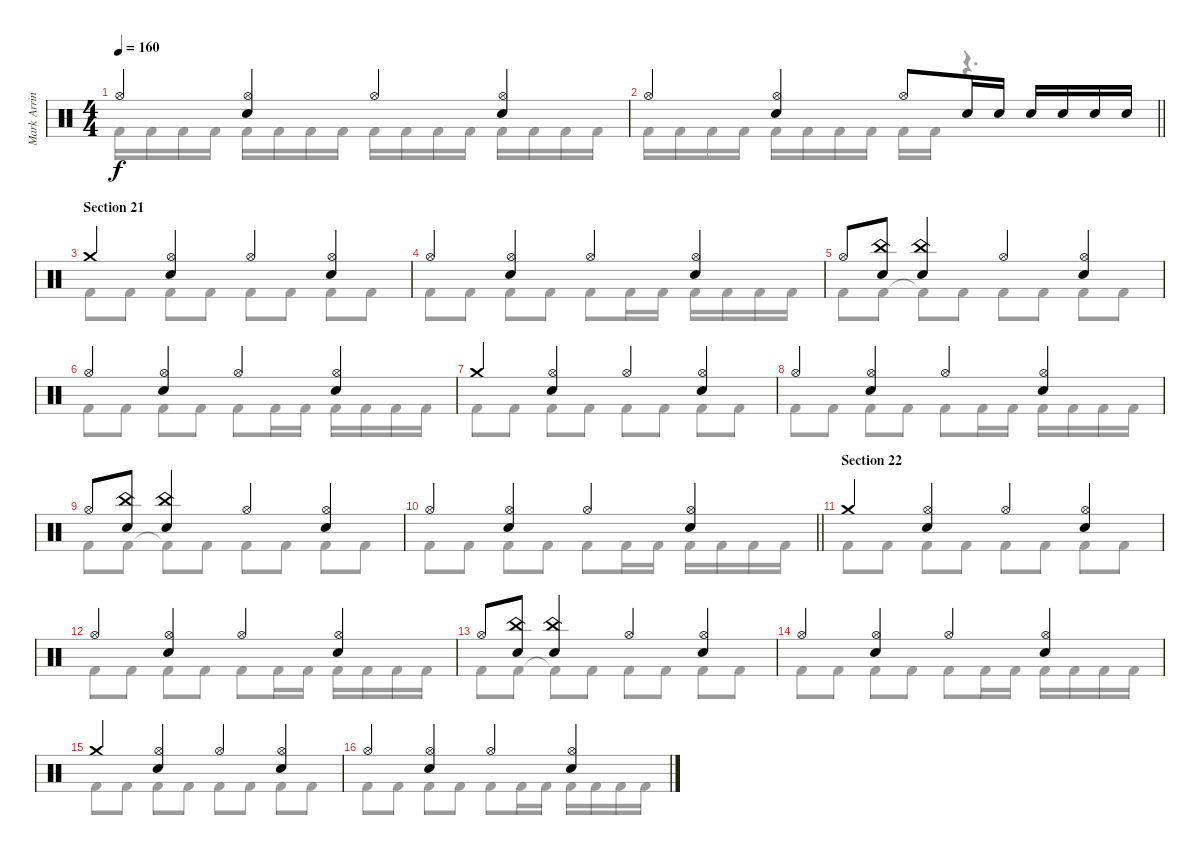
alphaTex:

\track ("Mark Arrington – drums" "Mark Arrin") {instrument percussion}
\staff {score}
\articulation defaults
\voice
\ts (4 4)
\tempo 160
\clef neutral
\ks c "Hi-Hat (open)".4{dy f}
("Hi-Hat (open)" "Electric Snare (hit)").4 "Hi-Hat (open)".4 ("Hi-Hat (open)" "Electric Snare (hit)").4 |
\barLineRight lightlight "Hi-Hat (open)".4
("Hi-Hat (open)" "Electric Snare (hit)").4 "Hi-Hat (open)".8 "Electric Snare (hit)".16 "Electric Snare (hit)".16 "Electric Snare (hit)".16 "Electric Snare (hit)".16 "Electric Snare (hit)".16 "Electric Snare (hit)".16 |
\section ("" "Section 21")
"Crash medium (hit)".4 ("Hi-Hat (open)" "Electric Snare (hit)").4 "Hi-Hat (open)".4 ("Hi-Hat (open)" "Electric Snare (hit)").4 |
"Hi-Hat (open)".4 ("Hi-Hat (open)" "Electric Snare (hit)").4 "Hi-Hat (open)".4 ("Hi-Hat (open)" "Electric Snare (hit)").4 |
"Hi-Hat (open)".8 ("China (hit)" "Electric Snare (hit)").8 ("China (hit)" "Electric Snare (hit)").4 "Hi-Hat (open)".4 ("Hi-Hat (open)" "Electric Snare (hit)").4 |
"Hi-Hat (open)".4 ("Hi-Hat (open)" "Electric Snare (hit)").4 "Hi-Hat (open)".4 ("Hi-Hat (open)" "Electric Snare (hit)").4 |
"Crash medium (hit)".4 ("Hi-Hat (open)" "Electric Snare (hit)").4 "Hi-Hat (open)".4 ("Hi-Hat (open)" "Electric Snare (hit)").4 |
"Hi-Hat (open)".4 ("Hi-Hat (open)" "Electric Snare (hit)").4 "Hi-Hat (open)".4 ("Hi-Hat (open)" "Electric Snare (hit)").4 |
"Hi-Hat (open)".8 ("China (hit)" "Electric Snare (hit)").8 ("China (hit)" "Electric Snare (hit)").4 "Hi-Hat (open)".4 ("Hi-Hat (open)" "Electric Snare (hit)").4 |
\barLineRight lightlight "Hi-Hat (open)".4
("Hi-Hat (open)" "Electric Snare (hit)").4 "Hi-Hat (open)".4 ("Hi-Hat (open)" "Electric Snare (hit)").4 |
\section ("" "Section 22")
"Crash medium (hit)".4 ("Hi-Hat (open)" "Electric Snare (hit)").4 "Hi-Hat (open)".4 ("Hi-Hat (open)" "Electric Snare (hit)").4 |
"Hi-Hat (open)".4 ("Hi-Hat (open)" "Electric Snare (hit)").4 "Hi-Hat (open)".4 ("Hi-Hat (open)" "Electric Snare (hit)").4 |
"Hi-Hat (open)".8 ("China (hit)" "Electric Snare (hit)").8 ("China (hit)" "Electric Snare (hit)").4 "Hi-Hat (open)".4 ("Hi-Hat (open)" "Electric Snare (hit)").4 |
"Hi-Hat (open)".4 ("Hi-Hat (open)" "Electric Snare (hit)").4 "Hi-Hat (open)".4 ("Hi-Hat (open)" "Electric Snare (hit)").4 |
"Crash medium (hit)".4 ("Hi-Hat (open)" "Electric Snare (hit)").4 "Hi-Hat (open)".4 ("Hi-Hat (open)" "Electric Snare (hit)").4 |
"Hi-Hat (open)".4 ("Hi-Hat (open)" "Electric Snare (hit)").4 "Hi-Hat (open)".4 ("Hi-Hat (open)" "Electric Snare (hit)").4
\voice
\clef neutral
\ottava regular
\simile none
\ks c "Kick (hit) 2".16{dy f} "Kick (hit) 2".16 "Kick (hit) 2".16 "Kick (hit) 2".16 "Kick (hit) 2".16 "Kick (hit) 2".16 "Kick (hit) 2".16 "Kick (hit) 2".16 "Kick (hit) 2".16 "Kick (hit) 2".16 "Kick (hit) 2".16 "Kick (hit) 2".16 "Kick (hit) 2".16 "Kick (hit) 2".16 "Kick (hit) 2".16 "Kick (hit) 2".16
|
\barLineRight lightlight "Kick (hit) 2".16 "Kick (hit) 2".16 "Kick (hit) 2".16 "Kick (hit) 2".16 "Kick (hit) 2".16 "Kick (hit) 2".16 "Kick (hit) 2".16 "Kick (hit) 2".16 "Kick (hit) 2".16 "Kick (hit) 2".16
r.4{d} |
"Kick (hit) 2".8 "Kick (hit) 2".8 "Kick (hit) 2".8 "Kick (hit) 2".8 "Kick (hit) 2".8 "Kick (hit) 2".8 "Kick (hit) 2".8 "Kick (hit) 2".8 |
"Kick (hit) 2".8 "Kick (hit) 2".8 "Kick (hit) 2".8 "Kick (hit) 2".8 "Kick (hit) 2".8 "Kick (hit) 2".16 "Kick (hit) 2".16 "Kick (hit) 2".16 "Kick (hit) 2".16 "Kick (hit) 2".16 "Kick (hit) 2".16 |
"Kick (hit) 2".8 "Kick (hit) 2".8 "Kick (hit) 2"{t}.8 "Kick (hit) 2".8 "Kick (hit) 2".8 "Kick (hit) 2".8 "Kick (hit) 2".8 "Kick (hit) 2".8 |
"Kick (hit) 2".8 "Kick (hit) 2".8 "Kick (hit) 2".8 "Kick (hit) 2".8 "Kick (hit) 2".8 "Kick (hit) 2".16 "Kick (hit) 2".16 "Kick (hit) 2".16 "Kick (hit) 2".16 "Kick (hit) 2".16 "Kick (hit) 2".16 |
"Kick (hit) 2".8 "Kick (hit) 2".8 "Kick (hit) 2".8 "Kick (hit) 2".8 "Kick (hit) 2".8 "Kick (hit) 2".8 "Kick (hit) 2".8 "Kick (hit) 2".8 |
"Kick (hit) 2".8 "Kick (hit) 2".8 "Kick (hit) 2".8 "Kick (hit) 2".8 "Kick (hit) 2".8 "Kick (hit) 2".16 "Kick (hit) 2".16 "Kick (hit) 2".16 "Kick (hit) 2".16 "Kick (hit) 2".16 "Kick (hit) 2".16 |
"Kick (hit) 2".8 "Kick (hit) 2".8 "Kick (hit) 2"{t}.8 "Kick (hit) 2".8 "Kick (hit) 2".8 "Kick (hit) 2".8 "Kick (hit) 2".8 "Kick (hit) 2".8 |
\barLineRight lightlight "Kick (hit) 2".8 "Kick (hit) 2".8 "Kick (hit) 2".8 "Kick (hit) 2".8 "Kick (hit) 2".8 "Kick (hit) 2".16 "Kick (hit) 2".16 "Kick (hit) 2".16 "Kick (hit) 2".16 "Kick (hit) 2".16 "Kick (hit) 2".16
|
"Kick (hit) 2".8 "Kick (hit) 2".8 "Kick (hit) 2".8 "Kick (hit) 2".8 "Kick (hit) 2".8 "Kick (hit) 2".8 "Kick (hit) 2".8 "Kick (hit) 2".8 |
"Kick (hit) 2".8 "Kick (hit) 2".8 "Kick (hit) 2".8 "Kick (hit) 2".8 "Kick (hit) 2".8 "Kick (hit) 2".16 "Kick (hit) 2".16 "Kick (hit) 2".16 "Kick (hit) 2".16 "Kick (hit) 2".16 "Kick (hit) 2".16 |
"Kick (hit) 2".8 "Kick (hit) 2".8 "Kick (hit) 2"{t}.8 "Kick (hit) 2".8 "Kick (hit) 2".8 "Kick (hit) 2".8 "Kick (hit) 2".8 "Kick (hit) 2".8 |
"Kick (hit) 2".8 "Kick (hit) 2".8 "Kick (hit) 2".8 "Kick (hit) 2".8 "Kick (hit) 2".8 "Kick (hit) 2".16 "Kick (hit) 2".16 "Kick (hit) 2".16 "Kick (hit) 2".16 "Kick (hit) 2".16 "Kick (hit) 2".16 |
"Kick (hit) 2".8 "Kick (hit) 2".8 "Kick (hit) 2".8 "Kick (hit) 2".8 "Kick (hit) 2".8 "Kick (hit) 2".8 "Kick (hit) 2".8 "Kick (hit) 2".8 |
"Kick (hit) 2".8 "Kick (hit) 2".8 "Kick (hit) 2".8 "Kick (hit) 2".8 "Kick (hit) 2".8 "Kick (hit) 2".16 "Kick (hit) 2".16 "Kick (hit) 2".16 "Kick (hit) 2".16 "Kick (hit) 2".16 "Kick (hit) 2".16
